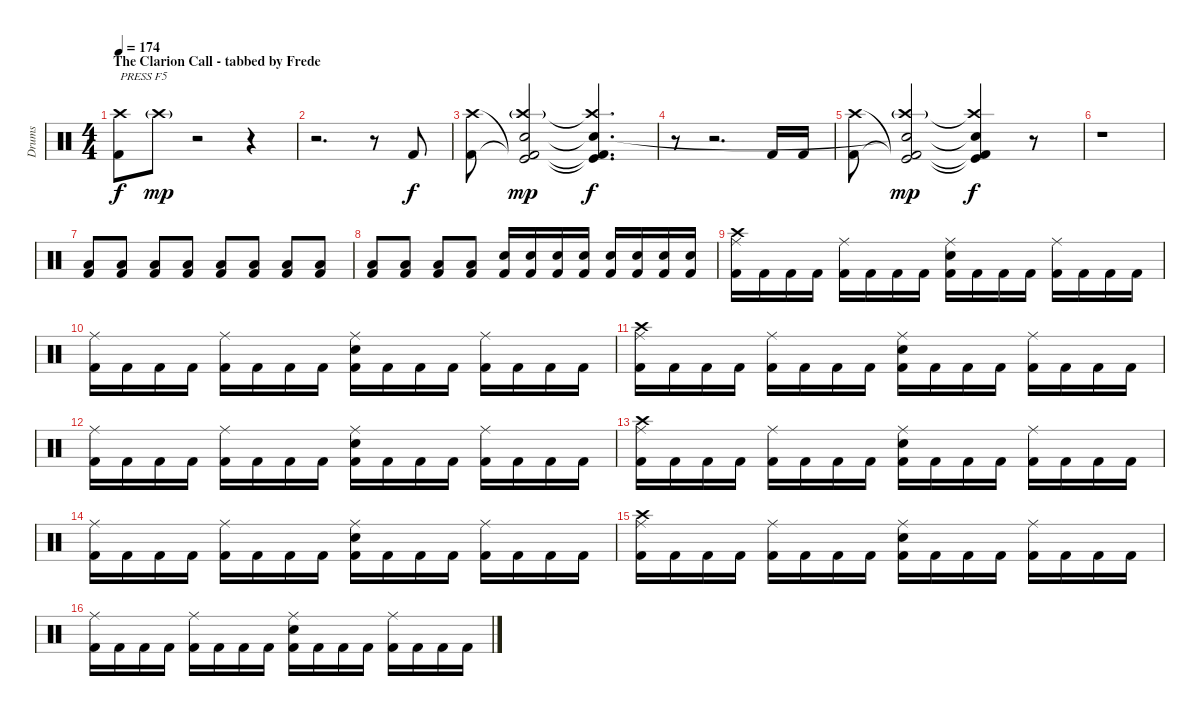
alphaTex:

\track ("Drums" "Drums") {instrument percussion}
\staff {score}
\articulation defaults
\ts (4 4)
\section ("" "The Clarion Call - tabbed by Frede")
\tempo 174
\clef neutral
\ks c
("Kick (hit) 2" "Crash high (hit)").8{txt "PRESS F5" dy f} "Crash high (hit)"{g}.8{dy mp volume 0} r.2 r.4 |
r.2{d} r.8 "Kick (hit) 2".8{dy f volume 16} |
("Kick (hit) 2" "Crash high (hit)").8 ("Kick (hit) 2"{t} "Kick (hit)"{t} "Electric Snare (hit)" "Crash high (hit)"{g}).2{dy mp volume 0} ("Kick (hit) 2"{t} "Kick (hit)"{t} "Electric Snare (hit)"{t} "Crash high (hit)"{t}).4{d dy f} |
r.8 r.2{d} "Kick (hit) 2".16{volume 16} "Kick (hit) 2".16 |
("Kick (hit) 2" "Crash high (hit)").8 ("Kick (hit) 2"{t} "Kick (hit)"{t} "Electric Snare (hit)"{t} "Crash high (hit)"{g}).2{dy mp volume 0} ("Kick (hit) 2"{t} "Kick (hit)"{t} "Electric Snare (hit)"{t} "Crash high (hit)"{t}).4{dy f} r.8 |
r.1 |
("Kick (hit) 2" "Low Floor Tom (hit)").8{volume 16} ("Kick (hit) 2" "Low Floor Tom (hit)").8 ("Kick (hit) 2" "Low Floor Tom (hit)").8 ("Kick (hit) 2" "Low Floor Tom (hit)").8 ("Kick (hit) 2" "Low Floor Tom (hit)").8 ("Kick (hit) 2" "Low Floor Tom (hit)").8 ("Kick (hit) 2" "Low Floor Tom (hit)").8 ("Kick (hit) 2" "Low Floor Tom (hit)").8 |
("Kick (hit) 2" "Low Floor Tom (hit)").8 ("Kick (hit) 2" "Low Floor Tom (hit)").8 ("Kick (hit) 2" "Low Floor Tom (hit)").8 ("Kick (hit) 2" "Low Floor Tom (hit)").8 ("Kick (hit) 2" "Snare (hit) 2").16 ("Kick (hit) 2" "Snare (hit) 2").16 ("Kick (hit) 2" "Snare (hit) 2").16 ("Kick (hit) 2" "Snare (hit) 2").16 ("Kick (hit) 2" "Snare (hit) 2").16 ("Kick (hit) 2" "Snare (hit) 2").16 ("Kick (hit) 2" "Snare (hit) 2").16 ("Kick (hit) 2" "Snare (hit) 2").16 |
("Crash high (hit)" "Ride (middle)" "Kick (hit) 2").16 "Kick (hit) 2".16 "Kick (hit) 2".16 "Kick (hit) 2".16 ("Ride (middle)" "Kick (hit) 2").16 "Kick (hit) 2".16 "Kick (hit) 2".16 "Kick (hit) 2".16 ("Ride (middle)" "Snare (hit) 2" "Kick (hit) 2").16 "Kick (hit) 2".16 "Kick (hit) 2".16 "Kick (hit) 2".16 ("Ride (middle)" "Kick (hit) 2").16 "Kick (hit) 2".16 "Kick (hit) 2".16 "Kick (hit) 2".16 |
("Ride (middle)" "Kick (hit) 2").16 "Kick (hit) 2".16 "Kick (hit) 2".16 "Kick (hit) 2".16 ("Ride (middle)" "Kick (hit) 2").16 "Kick (hit) 2".16 "Kick (hit) 2".16 "Kick (hit) 2".16 ("Ride (middle)" "Snare (hit) 2" "Kick (hit) 2").16 "Kick (hit) 2".16 "Kick (hit) 2".16 "Kick (hit) 2".16 ("Ride (middle)" "Kick (hit) 2").16 "Kick (hit) 2".16 "Kick (hit) 2".16 "Kick (hit) 2".16 |
("Crash high (hit)" "Ride (middle)" "Kick (hit) 2").16 "Kick (hit) 2".16 "Kick (hit) 2".16 "Kick (hit) 2".16 ("Ride (middle)" "Kick (hit) 2").16 "Kick (hit) 2".16 "Kick (hit) 2".16 "Kick (hit) 2".16 ("Ride (middle)" "Snare (hit) 2" "Kick (hit) 2").16 "Kick (hit) 2".16 "Kick (hit) 2".16 "Kick (hit) 2".16 ("Ride (middle)" "Kick (hit) 2").16 "Kick (hit) 2".16 "Kick (hit) 2".16 "Kick (hit) 2".16 |
("Ride (middle)" "Kick (hit) 2").16 "Kick (hit) 2".16 "Kick (hit) 2".16 "Kick (hit) 2".16 ("Ride (middle)" "Kick (hit) 2").16 "Kick (hit) 2".16 "Kick (hit) 2".16 "Kick (hit) 2".16 ("Ride (middle)" "Snare (hit) 2" "Kick (hit) 2").16 "Kick (hit) 2".16 "Kick (hit) 2".16 "Kick (hit) 2".16 ("Ride (middle)" "Kick (hit) 2").16 "Kick (hit) 2".16 "Kick (hit) 2".16 "Kick (hit) 2".16 |
("Crash high (hit)" "Ride (middle)" "Kick (hit) 2").16 "Kick (hit) 2".16 "Kick (hit) 2".16 "Kick (hit) 2".16 ("Ride (middle)" "Kick (hit) 2").16 "Kick (hit) 2".16 "Kick (hit) 2".16 "Kick (hit) 2".16 ("Ride (middle)" "Snare (hit) 2" "Kick (hit) 2").16 "Kick (hit) 2".16 "Kick (hit) 2".16 "Kick (hit) 2".16 ("Ride (middle)" "Kick (hit) 2").16 "Kick (hit) 2".16 "Kick (hit) 2".16 "Kick (hit) 2".16 |
("Ride (middle)" "Kick (hit) 2").16 "Kick (hit) 2".16 "Kick (hit) 2".16 "Kick (hit) 2".16 ("Ride (middle)" "Kick (hit) 2").16 "Kick (hit) 2".16 "Kick (hit) 2".16 "Kick (hit) 2".16 ("Ride (middle)" "Snare (hit) 2" "Kick (hit) 2").16 "Kick (hit) 2".16 "Kick (hit) 2".16 "Kick (hit) 2".16 ("Ride (middle)" "Kick (hit) 2").16 "Kick (hit) 2".16 "Kick (hit) 2".16 "Kick (hit) 2".16 |
("Crash high (hit)" "Ride (middle)" "Kick (hit) 2").16 "Kick (hit) 2".16 "Kick (hit) 2".16 "Kick (hit) 2".16 ("Ride (middle)" "Kick (hit) 2").16 "Kick (hit) 2".16 "Kick (hit) 2".16 "Kick (hit) 2".16 ("Ride (middle)" "Snare (hit) 2" "Kick (hit) 2").16 "Kick (hit) 2".16 "Kick (hit) 2".16 "Kick (hit) 2".16 ("Ride (middle)" "Kick (hit) 2").16 "Kick (hit) 2".16 "Kick (hit) 2".16 "Kick (hit) 2".16 |
("Ride (middle)" "Kick (hit) 2").16 "Kick (hit) 2".16 "Kick (hit) 2".16 "Kick (hit) 2".16 ("Ride (middle)" "Kick (hit) 2").16 "Kick (hit) 2".16 "Kick (hit) 2".16 "Kick (hit) 2".16 ("Ride (middle)" "Snare (hit) 2" "Kick (hit) 2").16 "Kick (hit) 2".16 "Kick (hit) 2".16 "Kick (hit) 2".16 ("Ride (middle)" "Kick (hit) 2").16 "Kick (hit) 2".16 "Kick (hit) 2".16 "Kick (hit) 2".16
